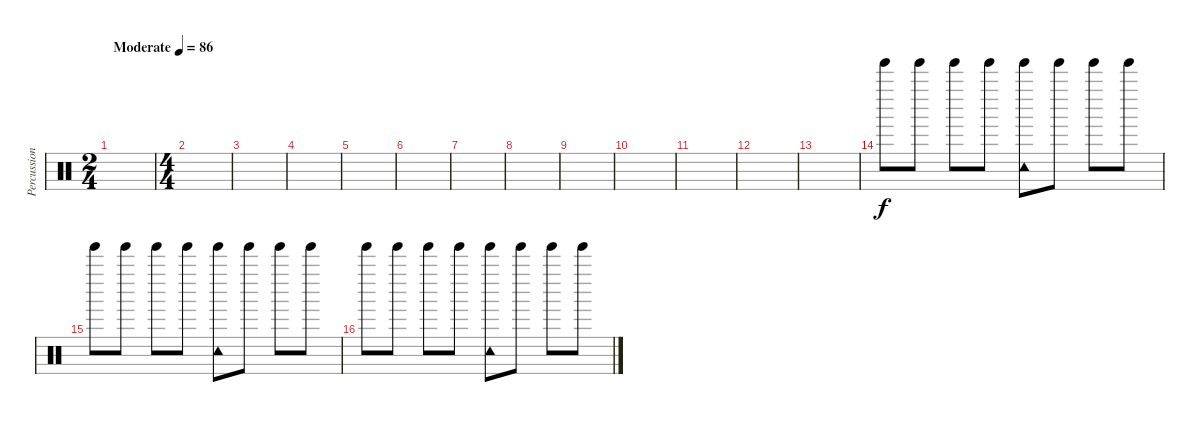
\track ("Percussion" "Percussion") {instrument percussion}
\staff {score}
\articulation defaults
\ts (2 4)
\tempo (86 "Moderate")
\clef neutral
\ks c
|
\ts (4 4)
|
|
|
|
|
|
|
|
|
|
|
|
"Tinkle Bell (hit)".8 "Tinkle Bell (hit)".8 "Tinkle Bell (hit)".8 "Tinkle Bell (hit)".8 ("Tambourine (hit)" "Tinkle Bell (hit)").8 "Tinkle Bell (hit)".8 "Tinkle Bell (hit)".8 "Tinkle Bell (hit)".8 |
"Tinkle Bell (hit)".8 "Tinkle Bell (hit)".8 "Tinkle Bell (hit)".8 "Tinkle Bell (hit)".8 ("Tinkle Bell (hit)" "Tambourine (hit)").8 "Tinkle Bell (hit)".8 "Tinkle Bell (hit)".8 "Tinkle Bell (hit)".8 |
"Tinkle Bell (hit)".8 "Tinkle Bell (hit)".8 "Tinkle Bell (hit)".8 "Tinkle Bell (hit)".8 ("Tinkle Bell (hit)" "Tambourine (hit)").8 "Tinkle Bell (hit)".8 "Tinkle Bell (hit)".8 "Tinkle Bell (hit)".8
